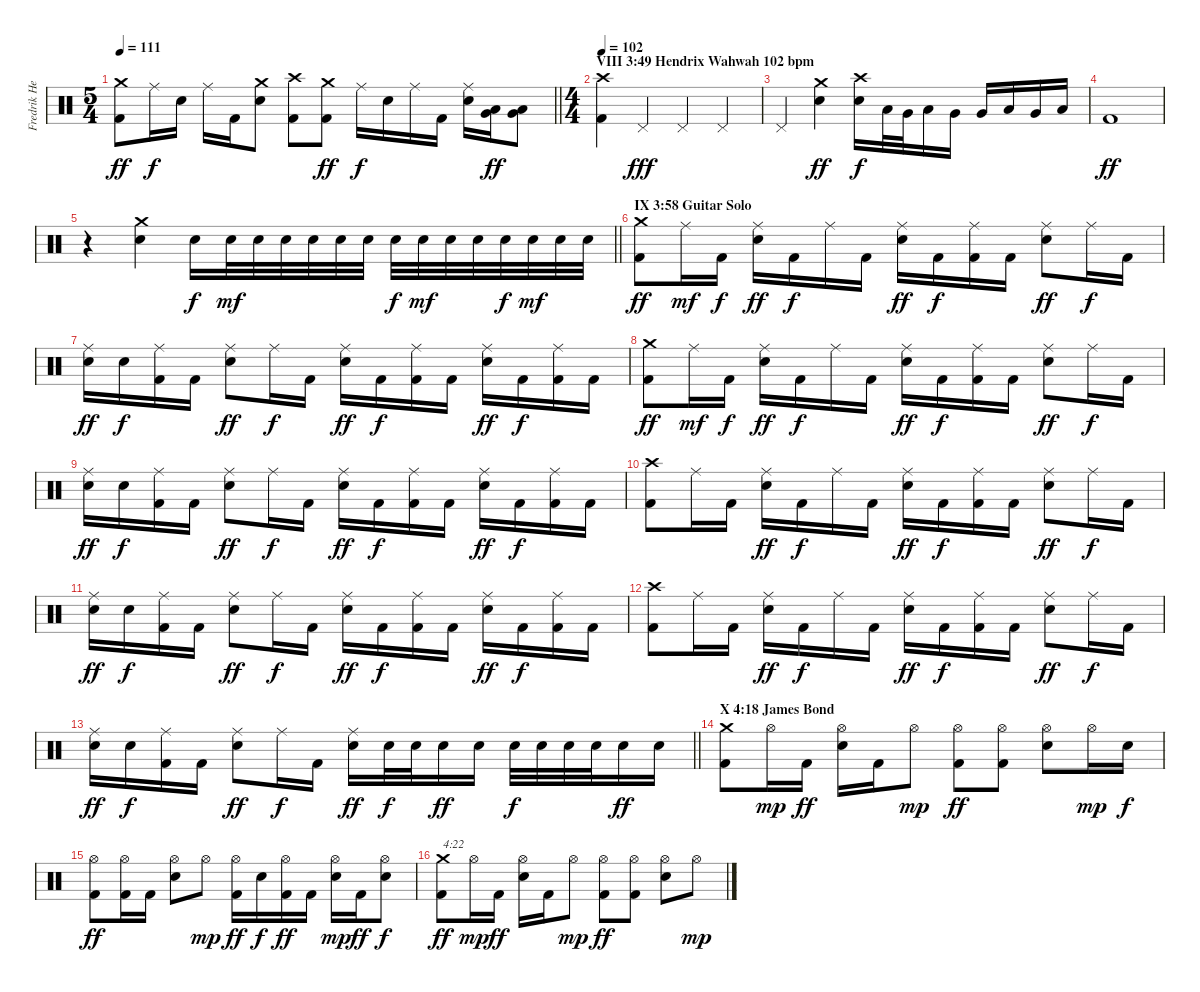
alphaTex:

\track ("Fredrik Hellerström (Drums)" "Fredrik He") {instrument percussion}
\staff
\articulation defaults
\ts (5 4)
\tempo 111
\clef neutral
\barLineRight lightlight
\ks c
("Crash medium (hit)" "Kick (hit) 2").8{dy ff} "Ride (middle)".16{dy f} "Electric Snare (hit)".16 "Ride (middle)".16 "Kick (hit) 2".16 ("Crash medium (hit)" "Electric Snare (hit)").8 ("Crash high (hit)" "Kick (hit) 2").8 ("Crash medium (hit)" "Kick (hit) 2").8{dy ff} "Ride (middle)".16{dy f} "Electric Snare (hit)".16 "Ride (middle)".16 "Kick (hit) 2".16 ("Ride (middle)" "Electric Snare (hit)").16 ("Low Tom (hit)" "Very Low Tom (hit)").16{dy ff} ("Very Low Tom (hit)" "Low Floor Tom (hit)").8 |
\ts (4 4)
\section ("" "VIII 3:49 Hendrix Wahwah 102 bpm")
\tempo 102
("Crash high (hit)" "Kick (hit) 2").4 "Pedal Hi-Hat (hit)".4{dy fff} "Pedal Hi-Hat (hit)".4 "Pedal Hi-Hat (hit)".4 |
"Pedal Hi-Hat (hit)".4 ("Crash medium (hit)" "Electric Snare (hit)").4{dy ff} ("Crash high (hit)" "Electric Snare (hit)").16{dy f} "Low Tom (hit)".32 "Very Low Tom (hit)".32 "Low Tom (hit)".16 "Very Low Tom (hit)".16 "Very Low Tom (hit)".16 "Low Tom (hit)".16 "Very Low Tom (hit)".16 "Low Floor Tom (hit)".16 |
"Kick (hit) 2".1{dy ff} |
\barLineRight lightlight
r.4 ("Crash medium (hit)" "Electric Snare (hit)").4 "Electric Snare (hit)".16{dy f} "Electric Snare (hit)".32{dy mf} "Electric Snare (hit)".32 "Electric Snare (hit)".32 "Electric Snare (hit)".32 "Electric Snare (hit)".32 "Electric Snare (hit)".32 "Electric Snare (hit)".32{dy f} "Electric Snare (hit)".32{dy mf} "Electric Snare (hit)".32 "Electric Snare (hit)".32 "Electric Snare (hit)".32{dy f} "Electric Snare (hit)".32{dy mf} "Electric Snare (hit)".32 "Electric Snare (hit)".32 |
\section ("" "IX 3:58 Guitar Solo")
("Crash medium (hit)" "Kick (hit) 2").8{dy ff} "Ride (middle)".16{dy mf} "Kick (hit) 2".16{dy f} ("Ride (middle)" "Electric Snare (hit)").16{dy ff} "Kick (hit) 2".16{dy f} "Ride (middle)".16 "Kick (hit) 2".16 ("Ride (middle)" "Electric Snare (hit)").16{dy ff} "Kick (hit) 2".16{dy f} ("Ride (middle)" "Kick (hit) 2").16 "Kick (hit) 2".16 ("Ride (middle)" "Electric Snare (hit)").8{dy ff} "Ride (middle)".16{dy f} "Kick (hit) 2".16 |
("Ride (middle)" "Electric Snare (hit)").16{dy ff} "Electric Snare (hit)".16{dy f} ("Ride (middle)" "Kick (hit) 2").16 "Kick (hit) 2".16 ("Ride (middle)" "Electric Snare (hit)").8{dy ff} "Ride (middle)".16{dy f} "Kick (hit) 2".16 ("Ride (middle)" "Electric Snare (hit)").16{dy ff} "Kick (hit) 2".16{dy f} ("Ride (middle)" "Kick (hit) 2").16 "Kick (hit) 2".16 ("Ride (middle)" "Electric Snare (hit)").16{dy ff} "Kick (hit) 2".16{dy f} ("Ride (middle)" "Kick (hit) 2").16 "Kick (hit) 2".16 |
("Crash medium (hit)" "Kick (hit) 2").8{dy ff} "Ride (middle)".16{dy mf} "Kick (hit) 2".16{dy f} ("Ride (middle)" "Electric Snare (hit)").16{dy ff} "Kick (hit) 2".16{dy f} "Ride (middle)".16 "Kick (hit) 2".16 ("Ride (middle)" "Electric Snare (hit)").16{dy ff} "Kick (hit) 2".16{dy f} ("Ride (middle)" "Kick (hit) 2").16 "Kick (hit) 2".16 ("Ride (middle)" "Electric Snare (hit)").8{dy ff} "Ride (middle)".16{dy f} "Kick (hit) 2".16 |
("Ride (middle)" "Electric Snare (hit)").16{dy ff} "Electric Snare (hit)".16{dy f} ("Ride (middle)" "Kick (hit) 2").16 "Kick (hit) 2".16 ("Ride (middle)" "Electric Snare (hit)").8{dy ff} "Ride (middle)".16{dy f} "Kick (hit) 2".16 ("Ride (middle)" "Electric Snare (hit)").16{dy ff} "Kick (hit) 2".16{dy f} ("Ride (middle)" "Kick (hit) 2").16 "Kick (hit) 2".16 ("Ride (middle)" "Electric Snare (hit)").16{dy ff} "Kick (hit) 2".16{dy f} ("Ride (middle)" "Kick (hit) 2").16 "Kick (hit) 2".16 |
("Crash high (hit)" "Kick (hit) 2").8 "Ride (middle)".16 "Kick (hit) 2".16 ("Ride (middle)" "Electric Snare (hit)").16{dy ff} "Kick (hit) 2".16{dy f} "Ride (middle)".16 "Kick (hit) 2".16 ("Ride (middle)" "Electric Snare (hit)").16{dy ff} "Kick (hit) 2".16{dy f} ("Ride (middle)" "Kick (hit) 2").16 "Kick (hit) 2".16 ("Ride (middle)" "Electric Snare (hit)").8{dy ff} "Ride (middle)".16{dy f} "Kick (hit) 2".16 |
("Ride (middle)" "Electric Snare (hit)").16{dy ff} "Electric Snare (hit)".16{dy f} ("Ride (middle)" "Kick (hit) 2").16 "Kick (hit) 2".16 ("Ride (middle)" "Electric Snare (hit)").8{dy ff} "Ride (middle)".16{dy f} "Kick (hit) 2".16 ("Ride (middle)" "Electric Snare (hit)").16{dy ff} "Kick (hit) 2".16{dy f} ("Ride (middle)" "Kick (hit) 2").16 "Kick (hit) 2".16 ("Ride (middle)" "Electric Snare (hit)").16{dy ff} "Kick (hit) 2".16{dy f} ("Ride (middle)" "Kick (hit) 2").16 "Kick (hit) 2".16 |
("Crash high (hit)" "Kick (hit) 2").8 "Ride (middle)".16 "Kick (hit) 2".16 ("Ride (middle)" "Electric Snare (hit)").16{dy ff} "Kick (hit) 2".16{dy f} "Ride (middle)".16 "Kick (hit) 2".16 ("Ride (middle)" "Electric Snare (hit)").16{dy ff} "Kick (hit) 2".16{dy f} ("Ride (middle)" "Kick (hit) 2").16 "Kick (hit) 2".16 ("Ride (middle)" "Electric Snare (hit)").8{dy ff} "Ride (middle)".16{dy f} "Kick (hit) 2".16 |
\barLineRight lightlight
("Ride (middle)" "Electric Snare (hit)").16{dy ff} "Electric Snare (hit)".16{dy f} ("Ride (middle)" "Kick (hit) 2").16 "Kick (hit) 2".16 ("Ride (middle)" "Electric Snare (hit)").8{dy ff} "Ride (middle)".16{dy f} "Kick (hit) 2".16 ("Ride (middle)" "Electric Snare (hit)").16{dy ff} "Electric Snare (hit)".32{dy f} "Electric Snare (hit)".32 "Electric Snare (hit)".16{dy ff} "Electric Snare (hit)".16 "Electric Snare (hit)".32{dy f} "Electric Snare (hit)".32 "Electric Snare (hit)".32 "Electric Snare (hit)".32 "Electric Snare (hit)".16{dy ff} "Electric Snare (hit)".16 |
\section ("" "X 4:18 James Bond")
("Crash medium (hit)" "Kick (hit) 2").8 "Hi-Hat (open)".16{dy mp} "Kick (hit) 2".16{dy ff} ("Hi-Hat (open)" "Electric Snare (hit)").16 "Kick (hit) 2".16 "Hi-Hat (open)".8{dy mp} ("Hi-Hat (open)" "Kick (hit) 2").8{dy ff} ("Hi-Hat (open)" "Kick (hit) 2").8 ("Hi-Hat (open)" "Electric Snare (hit)").8 "Hi-Hat (open)".16{dy mp} "Electric Snare (hit)".16{dy f} |
("Hi-Hat (open)" "Kick (hit) 2").8{dy ff} ("Hi-Hat (open)" "Kick (hit) 2").16 "Kick (hit) 2".16 ("Hi-Hat (open)" "Electric Snare (hit)").8 "Hi-Hat (open)".8{dy mp} ("Hi-Hat (open)" "Kick (hit) 2").16{dy ff} "Electric Snare (hit)".16{dy f} ("Hi-Hat (open)" "Kick (hit) 2").16{dy ff} "Kick (hit) 2".16 ("Hi-Hat (open)" "Electric Snare (hit)").16{dy mp} "Kick (hit) 2".16{dy ff} ("Hi-Hat (open)" "Electric Snare (hit)").8{dy f} |
("Crash medium (hit)" "Kick (hit) 2").8{txt "4:22" dy ff} "Hi-Hat (open)".16{dy mp} "Kick (hit) 2".16{dy ff} ("Hi-Hat (open)" "Electric Snare (hit)").16 "Kick (hit) 2".16 "Hi-Hat (open)".8{dy mp} ("Hi-Hat (open)" "Kick (hit) 2").8{dy ff} ("Hi-Hat (open)" "Kick (hit) 2").8 ("Hi-Hat (open)" "Electric Snare (hit)").8 "Hi-Hat (open)".8{dy mp}
